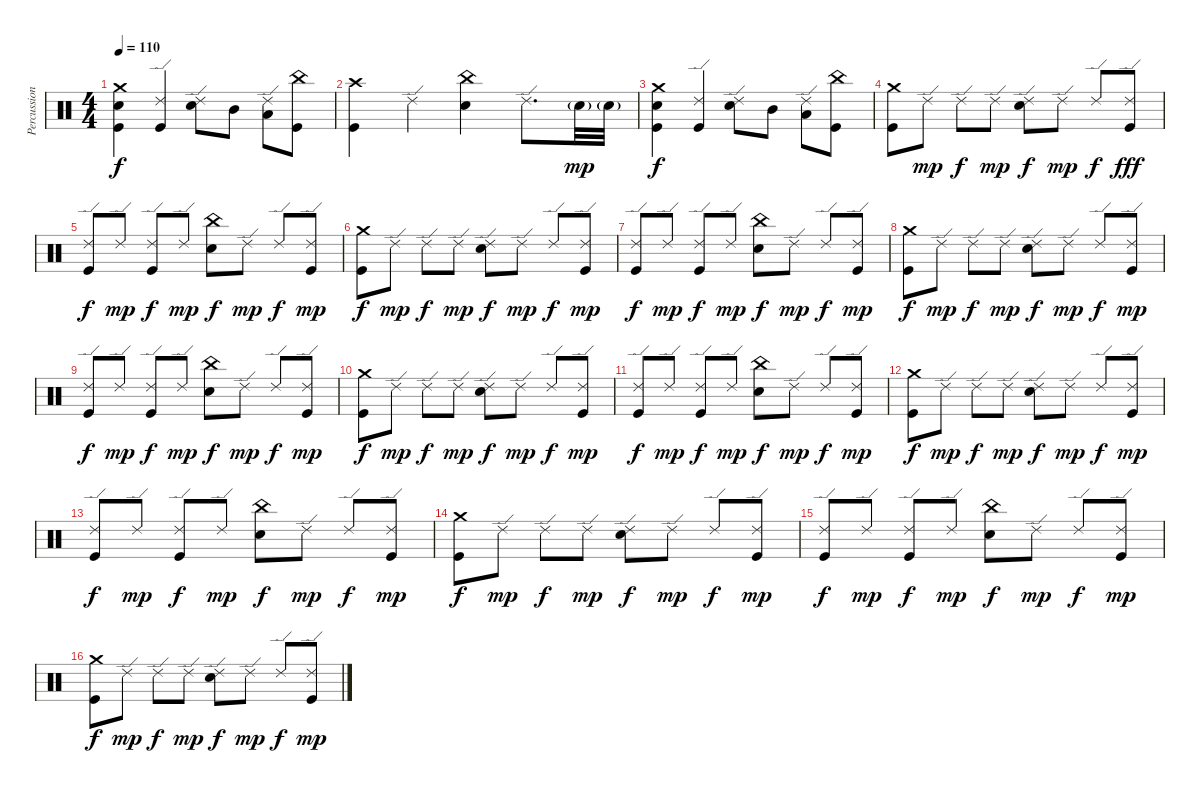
\track ("Percussioni" "Percussion") {instrument percussion}
\staff {score}
\articulation defaults
\ts (4 4)
\tempo 110
\clef neutral
\ks c
("Crash medium (hit)" "Electric Snare (hit)" "Kick (hit)").4{dy f} ("Ride (edge) 2" "Kick (hit)").4 ("Ride (edge) 2" "Electric Snare (hit)").8 "Mid Tom (hit)".8 ("Ride (edge) 2" "Low Tom (hit)").8 ("China (hit)" "Kick (hit)").8 |
("Crash high (hit)" "Kick (hit)").4 "Ride (edge) 2".4 ("China (hit)" "Electric Snare (hit)").4 "Ride (edge) 2".8{d} "Electric Snare (hit)"{g}.32{dy mp} "Electric Snare (hit)"{g}.32 |
("Crash medium (hit)" "Electric Snare (hit)" "Kick (hit)").4{dy f} ("Ride (edge) 2" "Kick (hit)").4 ("Ride (edge) 2" "Electric Snare (hit)").8 "Mid Tom (hit)".8 ("Ride (edge) 2" "Low Tom (hit)").8 ("China (hit)" "Kick (hit)").8 |
("Crash medium (hit)" "Kick (hit)").8 "Ride (edge) 2".8{dy mp} "Ride (edge) 2".8{dy f} "Ride (edge) 2".8{dy mp} ("Ride (edge) 2" "Electric Snare (hit)").8{dy f} "Ride (edge) 2".8{dy mp} "Ride (edge) 2".8{dy f} ("Ride (edge) 2" "Kick (hit)").8{dy fff} |
("Ride (edge) 2" "Kick (hit)").8{dy f} "Ride (edge) 2".8{dy mp} ("Ride (edge) 2" "Kick (hit)").8{dy f} "Ride (edge) 2".8{dy mp} ("China (hit)" "Electric Snare (hit)").8{dy f} "Ride (edge) 2".8{dy mp} "Ride (edge) 2".8{dy f} ("Ride (edge) 2" "Kick (hit)").8{dy mp} |
("Crash medium (hit)" "Kick (hit)").8{dy f} "Ride (edge) 2".8{dy mp} "Ride (edge) 2".8{dy f} "Ride (edge) 2".8{dy mp} ("Ride (edge) 2" "Electric Snare (hit)").8{dy f} "Ride (edge) 2".8{dy mp} "Ride (edge) 2".8{dy f} ("Ride (edge) 2" "Kick (hit)").8{dy mp} |
("Ride (edge) 2" "Kick (hit)").8{dy f} "Ride (edge) 2".8{dy mp} ("Ride (edge) 2" "Kick (hit)").8{dy f} "Ride (edge) 2".8{dy mp} ("China (hit)" "Electric Snare (hit)").8{dy f} "Ride (edge) 2".8{dy mp} "Ride (edge) 2".8{dy f} ("Ride (edge) 2" "Kick (hit)").8{dy mp} |
("Crash medium (hit)" "Kick (hit)").8{dy f} "Ride (edge) 2".8{dy mp} "Ride (edge) 2".8{dy f} "Ride (edge) 2".8{dy mp} ("Ride (edge) 2" "Electric Snare (hit)").8{dy f} "Ride (edge) 2".8{dy mp} "Ride (edge) 2".8{dy f} ("Ride (edge) 2" "Kick (hit)").8{dy mp} |
("Ride (edge) 2" "Kick (hit)").8{dy f} "Ride (edge) 2".8{dy mp} ("Ride (edge) 2" "Kick (hit)").8{dy f} "Ride (edge) 2".8{dy mp} ("China (hit)" "Electric Snare (hit)").8{dy f} "Ride (edge) 2".8{dy mp} "Ride (edge) 2".8{dy f} ("Ride (edge) 2" "Kick (hit)").8{dy mp} |
("Crash medium (hit)" "Kick (hit)").8{dy f} "Ride (edge) 2".8{dy mp} "Ride (edge) 2".8{dy f} "Ride (edge) 2".8{dy mp} ("Ride (edge) 2" "Electric Snare (hit)").8{dy f} "Ride (edge) 2".8{dy mp} "Ride (edge) 2".8{dy f} ("Ride (edge) 2" "Kick (hit)").8{dy mp} |
("Ride (edge) 2" "Kick (hit)").8{dy f} "Ride (edge) 2".8{dy mp} ("Ride (edge) 2" "Kick (hit)").8{dy f} "Ride (edge) 2".8{dy mp} ("China (hit)" "Electric Snare (hit)").8{dy f} "Ride (edge) 2".8{dy mp} "Ride (edge) 2".8{dy f} ("Ride (edge) 2" "Kick (hit)").8{dy mp} |
("Crash medium (hit)" "Kick (hit)").8{dy f} "Ride (edge) 2".8{dy mp} "Ride (edge) 2".8{dy f} "Ride (edge) 2".8{dy mp} ("Ride (edge) 2" "Electric Snare (hit)").8{dy f} "Ride (edge) 2".8{dy mp} "Ride (edge) 2".8{dy f} ("Ride (edge) 2" "Kick (hit)").8{dy mp} |
("Ride (edge) 2" "Kick (hit)").8{dy f} "Ride (edge) 2".8{dy mp} ("Ride (edge) 2" "Kick (hit)").8{dy f} "Ride (edge) 2".8{dy mp} ("China (hit)" "Electric Snare (hit)").8{dy f} "Ride (edge) 2".8{dy mp} "Ride (edge) 2".8{dy f} ("Ride (edge) 2" "Kick (hit)").8{dy mp} |
("Crash medium (hit)" "Kick (hit)").8{dy f} "Ride (edge) 2".8{dy mp} "Ride (edge) 2".8{dy f} "Ride (edge) 2".8{dy mp} ("Ride (edge) 2" "Electric Snare (hit)").8{dy f} "Ride (edge) 2".8{dy mp} "Ride (edge) 2".8{dy f} ("Ride (edge) 2" "Kick (hit)").8{dy mp} |
("Ride (edge) 2" "Kick (hit)").8{dy f} "Ride (edge) 2".8{dy mp} ("Ride (edge) 2" "Kick (hit)").8{dy f} "Ride (edge) 2".8{dy mp} ("China (hit)" "Electric Snare (hit)").8{dy f} "Ride (edge) 2".8{dy mp} "Ride (edge) 2".8{dy f} ("Ride (edge) 2" "Kick (hit)").8{dy mp} |
("Crash medium (hit)" "Kick (hit)").8{dy f} "Ride (edge) 2".8{dy mp} "Ride (edge) 2".8{dy f} "Ride (edge) 2".8{dy mp} ("Ride (edge) 2" "Electric Snare (hit)").8{dy f} "Ride (edge) 2".8{dy mp} "Ride (edge) 2".8{dy f} ("Ride (edge) 2" "Kick (hit)").8{dy mp}
